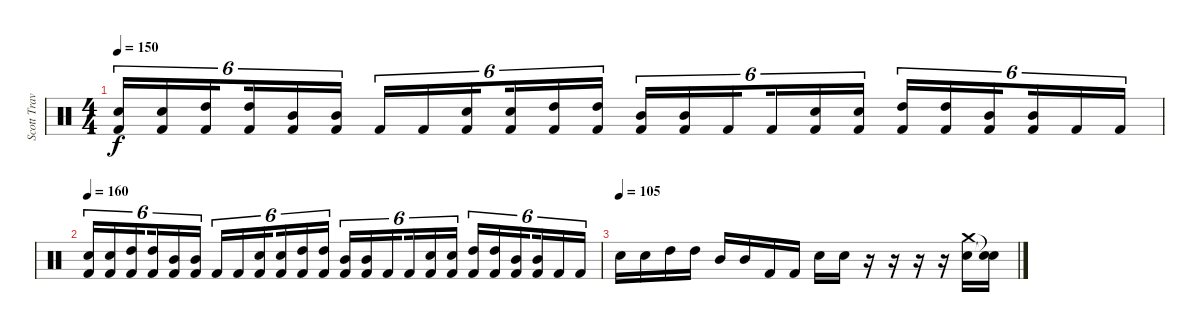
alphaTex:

\track ("Scott Travis" "Scott Trav") {instrument percussion}
\staff {score}
\articulation defaults
\ts (4 4)
\tempo 150
\clef neutral
\ks c
("Snare (hit) 2" "Kick (hit) 2").16{tu (6 4) dy f} ("Snare (hit) 2" "Kick (hit) 2").16{tu (6 4)} ("High Tom (hit)" "Kick (hit) 2").16{tu (6 4) beam splitsecondary} ("High Tom (hit)" "Kick (hit) 2").16{tu (6 4)} ("Mid Tom (hit)" "Kick (hit) 2").16{tu (6 4)} ("Mid Tom (hit)" "Kick (hit) 2").16{tu (6 4)} "Kick (hit) 2".16{tu (6 4)} "Kick (hit) 2".16{tu (6 4)} ("Snare (hit) 2" "Kick (hit) 2").16{tu (6 4) beam splitsecondary} ("Snare (hit) 2" "Kick (hit) 2").16{tu (6 4)} ("High Tom (hit)" "Kick (hit) 2").16{tu (6 4)} ("High Tom (hit)" "Kick (hit) 2").16{tu (6 4)} ("Mid Tom (hit)" "Kick (hit) 2").16{tu (6 4)} ("Mid Tom (hit)" "Kick (hit) 2").16{tu (6 4)} "Kick (hit) 2".16{tu (6 4) beam splitsecondary} "Kick (hit) 2".16{tu (6 4)} ("Snare (hit) 2" "Kick (hit) 2").16{tu (6 4)} ("Snare (hit) 2" "Kick (hit) 2").16{tu (6 4)} ("High Tom (hit)" "Kick (hit) 2").16{tu (6 4)} ("High Tom (hit)" "Kick (hit) 2").16{tu (6 4)} ("Mid Tom (hit)" "Kick (hit) 2").16{tu (6 4) beam splitsecondary} ("Mid Tom (hit)" "Kick (hit) 2").16{tu (6 4)} "Kick (hit) 2".16{tu (6 4)} "Kick (hit) 2".16{tu (6 4)} |
\tempo 160
("Snare (hit) 2" "Kick (hit) 2").16{tu (6 4)} ("Snare (hit) 2" "Kick (hit) 2").16{tu (6 4)} ("High Tom (hit)" "Kick (hit) 2").16{tu (6 4) beam splitsecondary} ("High Tom (hit)" "Kick (hit) 2").16{tu (6 4)} ("Mid Tom (hit)" "Kick (hit) 2").16{tu (6 4)} ("Mid Tom (hit)" "Kick (hit) 2").16{tu (6 4)} "Kick (hit) 2".16{tu (6 4)} "Kick (hit) 2".16{tu (6 4)} ("Snare (hit) 2" "Kick (hit) 2").16{tu (6 4) beam splitsecondary} ("Snare (hit) 2" "Kick (hit) 2").16{tu (6 4)} ("High Tom (hit)" "Kick (hit) 2").16{tu (6 4)} ("High Tom (hit)" "Kick (hit) 2").16{tu (6 4)} ("Mid Tom (hit)" "Kick (hit) 2").16{tu (6 4)} ("Mid Tom (hit)" "Kick (hit) 2").16{tu (6 4)} "Kick (hit) 2".16{tu (6 4) beam splitsecondary} "Kick (hit) 2".16{tu (6 4)} ("Snare (hit) 2" "Kick (hit) 2").16{tu (6 4)} ("Snare (hit) 2" "Kick (hit) 2").16{tu (6 4)} ("High Tom (hit)" "Kick (hit) 2").16{tu (6 4)} ("High Tom (hit)" "Kick (hit) 2").16{tu (6 4)} ("Mid Tom (hit)" "Kick (hit) 2").16{tu (6 4) beam splitsecondary} ("Mid Tom (hit)" "Kick (hit) 2").16{tu (6 4)} "Kick (hit) 2".16{tu (6 4)} "Kick (hit) 2".16{tu (6 4)} |
\tempo (105)
"Snare (hit) 2".16 "Snare (hit) 2".16 "High Tom (hit)".16 "High Tom (hit)".16 "Mid Tom (hit)".16 "Mid Tom (hit)".16 "Kick (hit) 2".16 "Kick (hit) 2".16 "Snare (hit) 2".16 "Snare (hit) 2".16 r.16 r.16 r.16 r.16 ("Crash medium (hit)" "Snare (hit) 2").16 ("Snare (hit)"{t} "Snare (hit)"{t}).16
